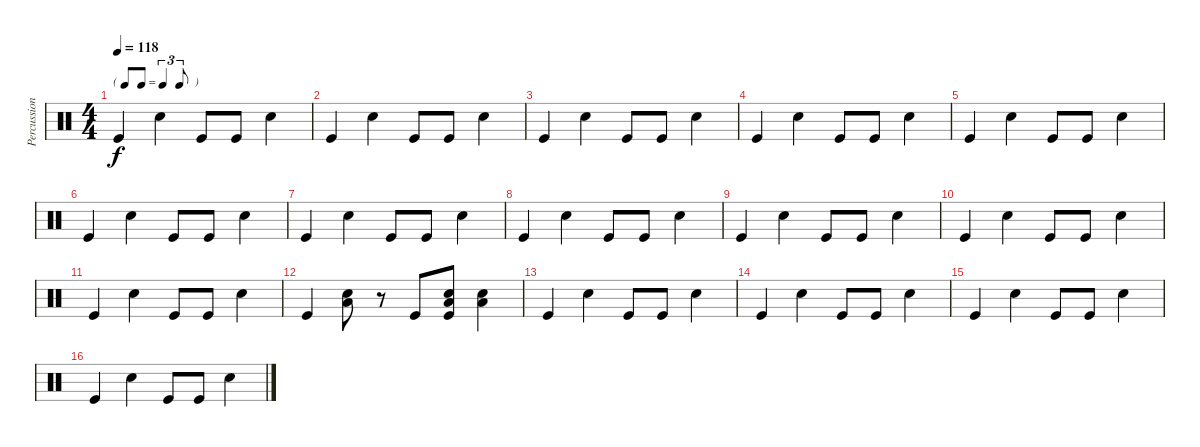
\track ("Percussion" "Percussion") {instrument percussion}
\staff {score}
\articulation defaults
\ts (4 4)
\tf triplet8th
\tempo 118
\clef neutral
\ks c "Kick (hit)".4{dy f} "Snare (hit) 2".4 "Kick (hit)".8 "Kick (hit)".8 "Snare (hit) 2".4
|
"Kick (hit)".4 "Snare (hit) 2".4 "Kick (hit)".8 "Kick (hit)".8 "Snare (hit) 2".4 |
"Kick (hit)".4 "Snare (hit) 2".4 "Kick (hit)".8 "Kick (hit)".8 "Snare (hit) 2".4 |
"Kick (hit)".4 "Snare (hit) 2".4 "Kick (hit)".8 "Kick (hit)".8 "Snare (hit) 2".4 |
"Kick (hit)".4 "Snare (hit) 2".4 "Kick (hit)".8 "Kick (hit)".8 "Snare (hit) 2".4 |
"Kick (hit)".4 "Snare (hit) 2".4 "Kick (hit)".8 "Kick (hit)".8 "Snare (hit) 2".4 |
"Kick (hit)".4 "Snare (hit) 2".4 "Kick (hit)".8 "Kick (hit)".8 "Snare (hit) 2".4 |
"Kick (hit)".4 "Snare (hit) 2".4 "Kick (hit)".8 "Kick (hit)".8 "Snare (hit) 2".4 |
"Kick (hit)".4 "Snare (hit) 2".4 "Kick (hit)".8 "Kick (hit)".8 "Snare (hit) 2".4 |
"Kick (hit)".4 "Snare (hit) 2".4 "Kick (hit)".8 "Kick (hit)".8 "Snare (hit) 2".4 |
"Kick (hit)".4 "Snare (hit) 2".4 "Kick (hit)".8 "Kick (hit)".8 "Snare (hit) 2".4 |
"Kick (hit)".4 ("Low Tom (hit)" "Snare (hit) 2").8 r.8 "Kick (hit)".8 ("Low Tom (hit)" "Snare (hit) 2" "Kick (hit)").8 ("Low Tom (hit)" "Snare (hit) 2").4 |
"Kick (hit)".4 "Snare (hit) 2".4 "Kick (hit)".8 "Kick (hit)".8 "Snare (hit) 2".4 |
"Kick (hit)".4 "Snare (hit) 2".4 "Kick (hit)".8 "Kick (hit)".8 "Snare (hit) 2".4 |
"Kick (hit)".4 "Snare (hit) 2".4 "Kick (hit)".8 "Kick (hit)".8 "Snare (hit) 2".4 |
"Kick (hit)".4 "Snare (hit) 2".4 "Kick (hit)".8 "Kick (hit)".8 "Snare (hit) 2".4
